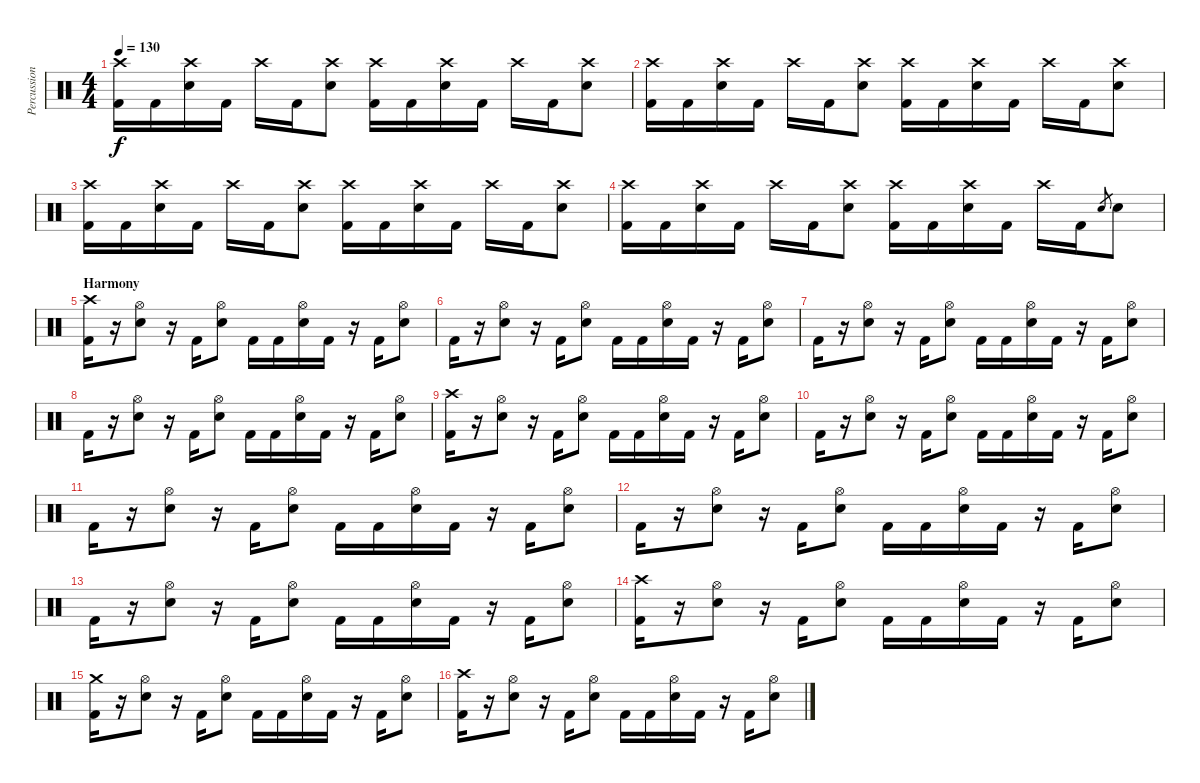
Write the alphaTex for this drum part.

\track ("Percussion" "Percussion") {instrument percussion}
\staff {score}
\articulation defaults
\ts (4 4)
\tempo 130
\clef neutral
\ks c
("Kick (hit) 2" "Crash high (hit)").16{dy f} "Kick (hit) 2".16 ("Electric Snare (hit)" "Crash high (hit)").16 "Kick (hit) 2".16 "Crash high (hit)".16 "Kick (hit) 2".16 ("Electric Snare (hit)" "Crash high (hit)").8 ("Kick (hit) 2" "Crash high (hit)").16 "Kick (hit) 2".16 ("Electric Snare (hit)" "Crash high (hit)").16 "Kick (hit) 2".16 "Crash high (hit)".16 "Kick (hit) 2".16 ("Electric Snare (hit)" "Crash high (hit)").8 |
("Kick (hit) 2" "Crash high (hit)").16 "Kick (hit) 2".16 ("Electric Snare (hit)" "Crash high (hit)").16 "Kick (hit) 2".16 "Crash high (hit)".16 "Kick (hit) 2".16 ("Electric Snare (hit)" "Crash high (hit)").8 ("Kick (hit) 2" "Crash high (hit)").16 "Kick (hit) 2".16 ("Electric Snare (hit)" "Crash high (hit)").16 "Kick (hit) 2".16 "Crash high (hit)".16 "Kick (hit) 2".16 ("Electric Snare (hit)" "Crash high (hit)").8 |
("Kick (hit) 2" "Crash high (hit)").16 "Kick (hit) 2".16 ("Electric Snare (hit)" "Crash high (hit)").16 "Kick (hit) 2".16 "Crash high (hit)".16 "Kick (hit) 2".16 ("Electric Snare (hit)" "Crash high (hit)").8 ("Kick (hit) 2" "Crash high (hit)").16 "Kick (hit) 2".16 ("Electric Snare (hit)" "Crash high (hit)").16 "Kick (hit) 2".16 "Crash high (hit)".16 "Kick (hit) 2".16 ("Electric Snare (hit)" "Crash high (hit)").8 |
("Kick (hit) 2" "Crash high (hit)").16 "Kick (hit) 2".16 ("Electric Snare (hit)" "Crash high (hit)").16 "Kick (hit) 2".16 "Crash high (hit)".16 "Kick (hit) 2".16 ("Electric Snare (hit)" "Crash high (hit)").8 ("Kick (hit) 2" "Crash high (hit)").16 "Kick (hit) 2".16 ("Electric Snare (hit)" "Crash high (hit)").16 "Kick (hit) 2".16 "Crash high (hit)".16 "Kick (hit) 2".16 "Electric Snare (hit)".8{gr} "Electric Snare (hit)".8 |
\section ("" "Harmony")
("Kick (hit) 2" "Crash high (hit)").16 r.16 ("Electric Snare (hit)" "Hi-Hat (open)").8 r.16 "Kick (hit) 2".16 ("Electric Snare (hit)" "Hi-Hat (open)").8 "Kick (hit) 2".16 "Kick (hit) 2".16 ("Electric Snare (hit)" "Hi-Hat (open)").16 "Kick (hit) 2".16 r.16 "Kick (hit) 2".16 ("Electric Snare (hit)" "Hi-Hat (open)").8 |
"Kick (hit) 2".16 r.16 ("Electric Snare (hit)" "Hi-Hat (open)").8 r.16 "Kick (hit) 2".16 ("Electric Snare (hit)" "Hi-Hat (open)").8 "Kick (hit) 2".16 "Kick (hit) 2".16 ("Electric Snare (hit)" "Hi-Hat (open)").16 "Kick (hit) 2".16 r.16 "Kick (hit) 2".16 ("Electric Snare (hit)" "Hi-Hat (open)").8 |
"Kick (hit) 2".16 r.16 ("Electric Snare (hit)" "Hi-Hat (open)").8 r.16 "Kick (hit) 2".16 ("Electric Snare (hit)" "Hi-Hat (open)").8 "Kick (hit) 2".16 "Kick (hit) 2".16 ("Electric Snare (hit)" "Hi-Hat (open)").16 "Kick (hit) 2".16 r.16 "Kick (hit) 2".16 ("Electric Snare (hit)" "Hi-Hat (open)").8 |
"Kick (hit) 2".16 r.16 ("Electric Snare (hit)" "Hi-Hat (open)").8 r.16 "Kick (hit) 2".16 ("Electric Snare (hit)" "Hi-Hat (open)").8 "Kick (hit) 2".16 "Kick (hit) 2".16 ("Electric Snare (hit)" "Hi-Hat (open)").16 "Kick (hit) 2".16 r.16 "Kick (hit) 2".16 ("Electric Snare (hit)" "Hi-Hat (open)").8 |
("Kick (hit) 2" "Crash high (hit)").16 r.16 ("Electric Snare (hit)" "Hi-Hat (open)").8 r.16 "Kick (hit) 2".16 ("Electric Snare (hit)" "Hi-Hat (open)").8 "Kick (hit) 2".16 "Kick (hit) 2".16 ("Electric Snare (hit)" "Hi-Hat (open)").16 "Kick (hit) 2".16 r.16 "Kick (hit) 2".16 ("Electric Snare (hit)" "Hi-Hat (open)").8 |
"Kick (hit) 2".16 r.16 ("Electric Snare (hit)" "Hi-Hat (open)").8 r.16 "Kick (hit) 2".16 ("Electric Snare (hit)" "Hi-Hat (open)").8 "Kick (hit) 2".16 "Kick (hit) 2".16 ("Electric Snare (hit)" "Hi-Hat (open)").16 "Kick (hit) 2".16 r.16 "Kick (hit) 2".16 ("Electric Snare (hit)" "Hi-Hat (open)").8 |
"Kick (hit) 2".16 r.16 ("Electric Snare (hit)" "Hi-Hat (open)").8 r.16 "Kick (hit) 2".16 ("Electric Snare (hit)" "Hi-Hat (open)").8 "Kick (hit) 2".16 "Kick (hit) 2".16 ("Electric Snare (hit)" "Hi-Hat (open)").16 "Kick (hit) 2".16 r.16 "Kick (hit) 2".16 ("Electric Snare (hit)" "Hi-Hat (open)").8 |
"Kick (hit) 2".16 r.16 ("Electric Snare (hit)" "Hi-Hat (open)").8 r.16 "Kick (hit) 2".16 ("Electric Snare (hit)" "Hi-Hat (open)").8 "Kick (hit) 2".16 "Kick (hit) 2".16 ("Electric Snare (hit)" "Hi-Hat (open)").16 "Kick (hit) 2".16 r.16 "Kick (hit) 2".16 ("Electric Snare (hit)" "Hi-Hat (open)").8 |
"Kick (hit) 2".16 r.16 ("Electric Snare (hit)" "Hi-Hat (open)").8 r.16 "Kick (hit) 2".16 ("Electric Snare (hit)" "Hi-Hat (open)").8 "Kick (hit) 2".16 "Kick (hit) 2".16 ("Electric Snare (hit)" "Hi-Hat (open)").16 "Kick (hit) 2".16 r.16 "Kick (hit) 2".16 ("Electric Snare (hit)" "Hi-Hat (open)").8 |
("Kick (hit) 2" "Crash high (hit)").16 r.16 ("Electric Snare (hit)" "Hi-Hat (open)").8 r.16 "Kick (hit) 2".16 ("Electric Snare (hit)" "Hi-Hat (open)").8 "Kick (hit) 2".16 "Kick (hit) 2".16 ("Electric Snare (hit)" "Hi-Hat (open)").16 "Kick (hit) 2".16 r.16 "Kick (hit) 2".16 ("Electric Snare (hit)" "Hi-Hat (open)").8 |
("Kick (hit) 2" "Crash medium (hit)").16 r.16 ("Electric Snare (hit)" "Hi-Hat (open)").8 r.16 "Kick (hit) 2".16 ("Electric Snare (hit)" "Hi-Hat (open)").8 "Kick (hit) 2".16 "Kick (hit) 2".16 ("Electric Snare (hit)" "Hi-Hat (open)").16 "Kick (hit) 2".16 r.16 "Kick (hit) 2".16 ("Electric Snare (hit)" "Hi-Hat (open)").8 |
("Kick (hit) 2" "Crash high (hit)").16 r.16 ("Electric Snare (hit)" "Hi-Hat (open)").8 r.16 "Kick (hit) 2".16 ("Electric Snare (hit)" "Hi-Hat (open)").8 "Kick (hit) 2".16 "Kick (hit) 2".16 ("Electric Snare (hit)" "Hi-Hat (open)").16 "Kick (hit) 2".16 r.16 "Kick (hit) 2".16 ("Electric Snare (hit)" "Hi-Hat (open)").8
